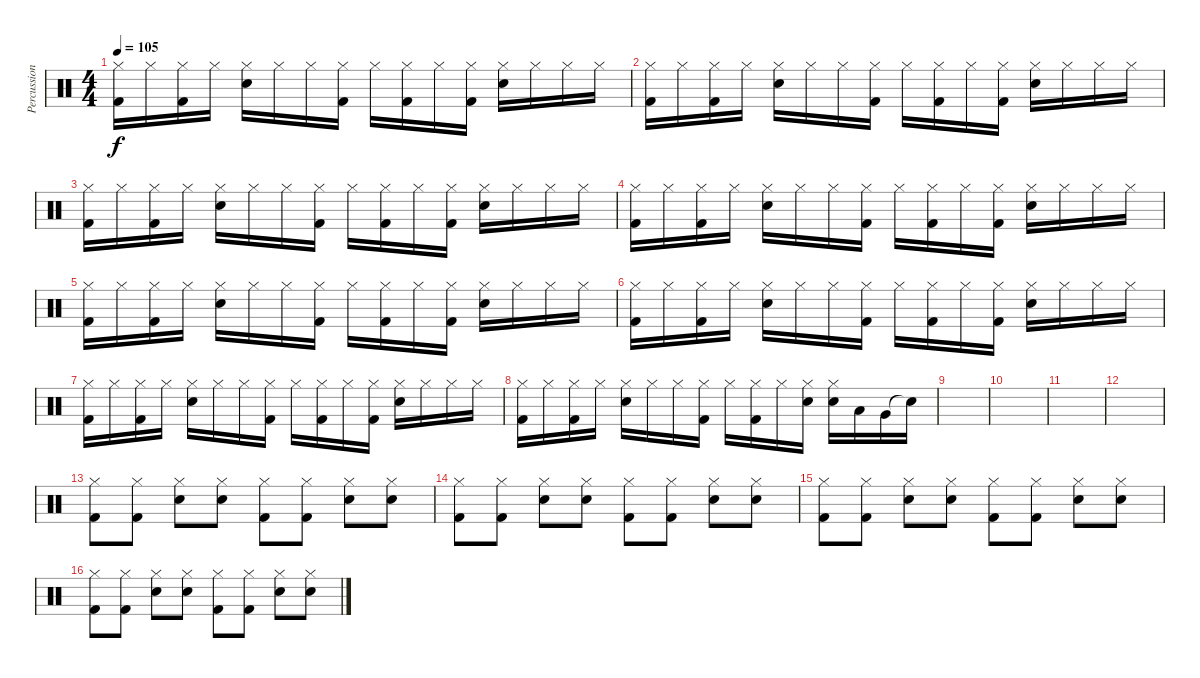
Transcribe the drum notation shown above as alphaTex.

\track ("Percussion" "Percussion") {instrument percussion}
\staff {score}
\articulation defaults
\ts (4 4)
\tempo 105
\clef neutral
\ks c
("Kick (hit) 2" "Hi-Hat (closed)").16{dy f} "Hi-Hat (closed)".16 ("Kick (hit) 2" "Hi-Hat (closed)").16 "Hi-Hat (closed)".16 ("Snare (hit) 2" "Hi-Hat (closed)").16 "Hi-Hat (closed)".16 "Hi-Hat (closed)".16 ("Kick (hit) 2" "Hi-Hat (closed)").16 "Hi-Hat (closed)".16 ("Kick (hit) 2" "Hi-Hat (closed)").16 "Hi-Hat (closed)".16 ("Kick (hit) 2" "Hi-Hat (closed)").16 ("Snare (hit) 2" "Hi-Hat (closed)").16 "Hi-Hat (closed)".16 "Hi-Hat (closed)".16 "Hi-Hat (closed)".16 |
("Kick (hit) 2" "Hi-Hat (closed)").16 "Hi-Hat (closed)".16 ("Kick (hit) 2" "Hi-Hat (closed)").16 "Hi-Hat (closed)".16 ("Snare (hit) 2" "Hi-Hat (closed)").16 "Hi-Hat (closed)".16 "Hi-Hat (closed)".16 ("Kick (hit) 2" "Hi-Hat (closed)").16 "Hi-Hat (closed)".16 ("Kick (hit) 2" "Hi-Hat (closed)").16 "Hi-Hat (closed)".16 ("Kick (hit) 2" "Hi-Hat (closed)").16 ("Snare (hit) 2" "Hi-Hat (closed)").16 "Hi-Hat (closed)".16 "Hi-Hat (closed)".16 "Hi-Hat (closed)".16 |
("Kick (hit) 2" "Hi-Hat (closed)").16 "Hi-Hat (closed)".16 ("Kick (hit) 2" "Hi-Hat (closed)").16 "Hi-Hat (closed)".16 ("Snare (hit) 2" "Hi-Hat (closed)").16 "Hi-Hat (closed)".16 "Hi-Hat (closed)".16 ("Kick (hit) 2" "Hi-Hat (closed)").16 "Hi-Hat (closed)".16 ("Kick (hit) 2" "Hi-Hat (closed)").16 "Hi-Hat (closed)".16 ("Kick (hit) 2" "Hi-Hat (closed)").16 ("Snare (hit) 2" "Hi-Hat (closed)").16 "Hi-Hat (closed)".16 "Hi-Hat (closed)".16 "Hi-Hat (closed)".16 |
("Kick (hit) 2" "Hi-Hat (closed)").16 "Hi-Hat (closed)".16 ("Kick (hit) 2" "Hi-Hat (closed)").16 "Hi-Hat (closed)".16 ("Snare (hit) 2" "Hi-Hat (closed)").16 "Hi-Hat (closed)".16 "Hi-Hat (closed)".16 ("Kick (hit) 2" "Hi-Hat (closed)").16 "Hi-Hat (closed)".16 ("Kick (hit) 2" "Hi-Hat (closed)").16 "Hi-Hat (closed)".16 ("Kick (hit) 2" "Hi-Hat (closed)").16 ("Snare (hit) 2" "Hi-Hat (closed)").16 "Hi-Hat (closed)".16 "Hi-Hat (closed)".16 "Hi-Hat (closed)".16 |
("Kick (hit) 2" "Hi-Hat (closed)").16 "Hi-Hat (closed)".16 ("Kick (hit) 2" "Hi-Hat (closed)").16 "Hi-Hat (closed)".16 ("Snare (hit) 2" "Hi-Hat (closed)").16 "Hi-Hat (closed)".16 "Hi-Hat (closed)".16 ("Kick (hit) 2" "Hi-Hat (closed)").16 "Hi-Hat (closed)".16 ("Kick (hit) 2" "Hi-Hat (closed)").16 "Hi-Hat (closed)".16 ("Kick (hit) 2" "Hi-Hat (closed)").16 ("Snare (hit) 2" "Hi-Hat (closed)").16 "Hi-Hat (closed)".16 "Hi-Hat (closed)".16 "Hi-Hat (closed)".16 |
("Kick (hit) 2" "Hi-Hat (closed)").16 "Hi-Hat (closed)".16 ("Kick (hit) 2" "Hi-Hat (closed)").16 "Hi-Hat (closed)".16 ("Snare (hit) 2" "Hi-Hat (closed)").16 "Hi-Hat (closed)".16 "Hi-Hat (closed)".16 ("Kick (hit) 2" "Hi-Hat (closed)").16 "Hi-Hat (closed)".16 ("Kick (hit) 2" "Hi-Hat (closed)").16 "Hi-Hat (closed)".16 ("Kick (hit) 2" "Hi-Hat (closed)").16 ("Snare (hit) 2" "Hi-Hat (closed)").16 "Hi-Hat (closed)".16 "Hi-Hat (closed)".16 "Hi-Hat (closed)".16 |
("Kick (hit) 2" "Hi-Hat (closed)").16 "Hi-Hat (closed)".16 ("Kick (hit) 2" "Hi-Hat (closed)").16 "Hi-Hat (closed)".16 ("Snare (hit) 2" "Hi-Hat (closed)").16 "Hi-Hat (closed)".16 "Hi-Hat (closed)".16 ("Kick (hit) 2" "Hi-Hat (closed)").16 "Hi-Hat (closed)".16 ("Kick (hit) 2" "Hi-Hat (closed)").16 "Hi-Hat (closed)".16 ("Kick (hit) 2" "Hi-Hat (closed)").16 ("Snare (hit) 2" "Hi-Hat (closed)").16 "Hi-Hat (closed)".16 "Hi-Hat (closed)".16 "Hi-Hat (closed)".16 |
("Kick (hit) 2" "Hi-Hat (closed)").16 "Hi-Hat (closed)".16 ("Kick (hit) 2" "Hi-Hat (closed)").16 "Hi-Hat (closed)".16 ("Snare (hit) 2" "Hi-Hat (closed)").16 "Hi-Hat (closed)".16 "Hi-Hat (closed)".16 ("Kick (hit) 2" "Hi-Hat (closed)").16 "Hi-Hat (closed)".16 ("Kick (hit) 2" "Hi-Hat (closed)").16 "Hi-Hat (closed)".16 ("Snare (hit) 2" "Hi-Hat (closed)").16 ("Snare (hit) 2" "Hi-Hat (closed)").16 "Low Tom (hit)".16 "Very Low Tom (hit)".16 "Snare (hit)"{t}.16 |
|
|
|
|
("Kick (hit) 2" "Hi-Hat (closed)").8 ("Kick (hit) 2" "Hi-Hat (closed)").8 ("Snare (hit) 2" "Hi-Hat (closed)").8 ("Snare (hit) 2" "Hi-Hat (closed)").8 ("Kick (hit) 2" "Hi-Hat (closed)").8 ("Kick (hit) 2" "Hi-Hat (closed)").8 ("Snare (hit) 2" "Hi-Hat (closed)").8 ("Snare (hit) 2" "Hi-Hat (closed)").8 |
("Kick (hit) 2" "Hi-Hat (closed)").8 ("Kick (hit) 2" "Hi-Hat (closed)").8 ("Snare (hit) 2" "Hi-Hat (closed)").8 ("Snare (hit) 2" "Hi-Hat (closed)").8 ("Kick (hit) 2" "Hi-Hat (closed)").8 ("Kick (hit) 2" "Hi-Hat (closed)").8 ("Snare (hit) 2" "Hi-Hat (closed)").8 ("Snare (hit) 2" "Hi-Hat (closed)").8 |
("Kick (hit) 2" "Hi-Hat (closed)").8 ("Kick (hit) 2" "Hi-Hat (closed)").8 ("Snare (hit) 2" "Hi-Hat (closed)").8 ("Snare (hit) 2" "Hi-Hat (closed)").8 ("Kick (hit) 2" "Hi-Hat (closed)").8 ("Kick (hit) 2" "Hi-Hat (closed)").8 ("Snare (hit) 2" "Hi-Hat (closed)").8 ("Snare (hit) 2" "Hi-Hat (closed)").8 |
("Kick (hit) 2" "Hi-Hat (closed)").8 ("Kick (hit) 2" "Hi-Hat (closed)").8 ("Snare (hit) 2" "Hi-Hat (closed)").8 ("Snare (hit) 2" "Hi-Hat (closed)").8 ("Kick (hit) 2" "Hi-Hat (closed)").8 ("Kick (hit) 2" "Hi-Hat (closed)").8 ("Snare (hit) 2" "Hi-Hat (closed)").8 ("Snare (hit) 2" "Hi-Hat (closed)").8
